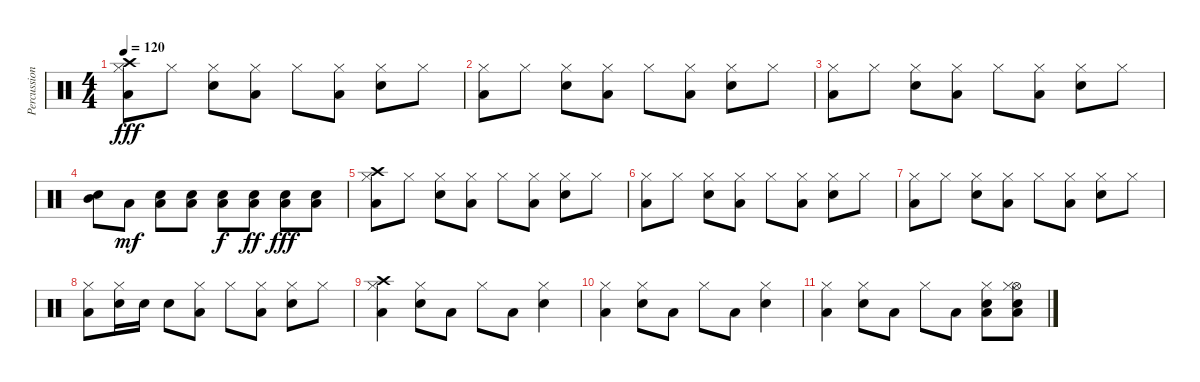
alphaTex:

\track ("Percussion" "Percussion") {instrument percussion}
\staff {score}
\articulation defaults
\ts (4 4)
\tempo 120
\clef neutral
\ks c
("Crash high (hit)" "Hi-Hat (closed)" "Low Tom (hit)").8{dy fff} "Hi-Hat (closed)".8 ("Hi-Hat (closed)" "Electric Snare (hit)").8 ("Hi-Hat (closed)" "Low Tom (hit)").8 "Hi-Hat (closed)".8 ("Hi-Hat (closed)" "Low Tom (hit)").8 ("Hi-Hat (closed)" "Electric Snare (hit)").8 "Hi-Hat (closed)".8 |
("Hi-Hat (closed)" "Low Tom (hit)").8 "Hi-Hat (closed)".8 ("Hi-Hat (closed)" "Electric Snare (hit)").8 ("Hi-Hat (closed)" "Low Tom (hit)").8 "Hi-Hat (closed)".8 ("Hi-Hat (closed)" "Low Tom (hit)").8 ("Hi-Hat (closed)" "Electric Snare (hit)").8 "Hi-Hat (closed)".8 |
("Hi-Hat (closed)" "Low Tom (hit)").8 "Hi-Hat (closed)".8 ("Hi-Hat (closed)" "Electric Snare (hit)").8 ("Hi-Hat (closed)" "Low Tom (hit)").8 "Hi-Hat (closed)".8 ("Hi-Hat (closed)" "Low Tom (hit)").8 ("Hi-Hat (closed)" "Electric Snare (hit)").8 "Hi-Hat (closed)".8 |
("Electric Snare (hit)" "Mid Tom (hit)").8 "Low Tom (hit)".8{dy mf} ("Electric Snare (hit)" "Low Tom (hit)").8 ("Electric Snare (hit)" "Low Tom (hit)").8 ("Electric Snare (hit)" "Low Tom (hit)").8{dy f} ("Electric Snare (hit)" "Low Tom (hit)").8{dy ff} ("Electric Snare (hit)" "Low Tom (hit)").8{dy fff} ("Electric Snare (hit)" "Low Tom (hit)").8 |
("Crash high (hit)" "Hi-Hat (closed)" "Low Tom (hit)").8 "Hi-Hat (closed)".8 ("Hi-Hat (closed)" "Electric Snare (hit)").8 ("Hi-Hat (closed)" "Low Tom (hit)").8 "Hi-Hat (closed)".8 ("Hi-Hat (closed)" "Low Tom (hit)").8 ("Hi-Hat (closed)" "Electric Snare (hit)").8 "Hi-Hat (closed)".8 |
("Hi-Hat (closed)" "Low Tom (hit)").8 "Hi-Hat (closed)".8 ("Hi-Hat (closed)" "Electric Snare (hit)").8 ("Hi-Hat (closed)" "Low Tom (hit)").8 "Hi-Hat (closed)".8 ("Hi-Hat (closed)" "Low Tom (hit)").8 ("Hi-Hat (closed)" "Electric Snare (hit)").8 "Hi-Hat (closed)".8 |
("Hi-Hat (closed)" "Low Tom (hit)").8 "Hi-Hat (closed)".8 ("Hi-Hat (closed)" "Electric Snare (hit)").8 ("Hi-Hat (closed)" "Low Tom (hit)").8 "Hi-Hat (closed)".8 ("Hi-Hat (closed)" "Low Tom (hit)").8 ("Hi-Hat (closed)" "Electric Snare (hit)").8 "Hi-Hat (closed)".8 |
("Hi-Hat (closed)" "Low Tom (hit)").8 ("Hi-Hat (closed)" "Electric Snare (hit)").16 "Electric Snare (hit)".16 "Electric Snare (hit)".8 ("Hi-Hat (closed)" "Low Tom (hit)").8 "Hi-Hat (closed)".8 ("Hi-Hat (closed)" "Low Tom (hit)").8 ("Hi-Hat (closed)" "Electric Snare (hit)").8 "Hi-Hat (closed)".8 |
("Crash high (hit)" "Hi-Hat (closed)" "Low Tom (hit)").4 ("Hi-Hat (closed)" "Electric Snare (hit)").8 "Low Tom (hit)".8 "Hi-Hat (closed)".8 "Low Tom (hit)".8 ("Hi-Hat (closed)" "Electric Snare (hit)").4 |
("Hi-Hat (closed)" "Low Tom (hit)").4 ("Hi-Hat (closed)" "Electric Snare (hit)").8 "Low Tom (hit)".8 "Hi-Hat (closed)".8 "Low Tom (hit)".8 ("Hi-Hat (closed)" "Electric Snare (hit)").4 |
("Hi-Hat (closed)" "Low Tom (hit)").4 ("Hi-Hat (closed)" "Electric Snare (hit)").8 "Low Tom (hit)".8 "Hi-Hat (closed)".8 "Low Tom (hit)".8 ("Hi-Hat (closed)" "Electric Snare (hit)" "Low Tom (hit)").8 ("Hi-Hat (open)" "Hi-Hat (closed)" "Electric Snare (hit)" "Low Tom (hit)").8
